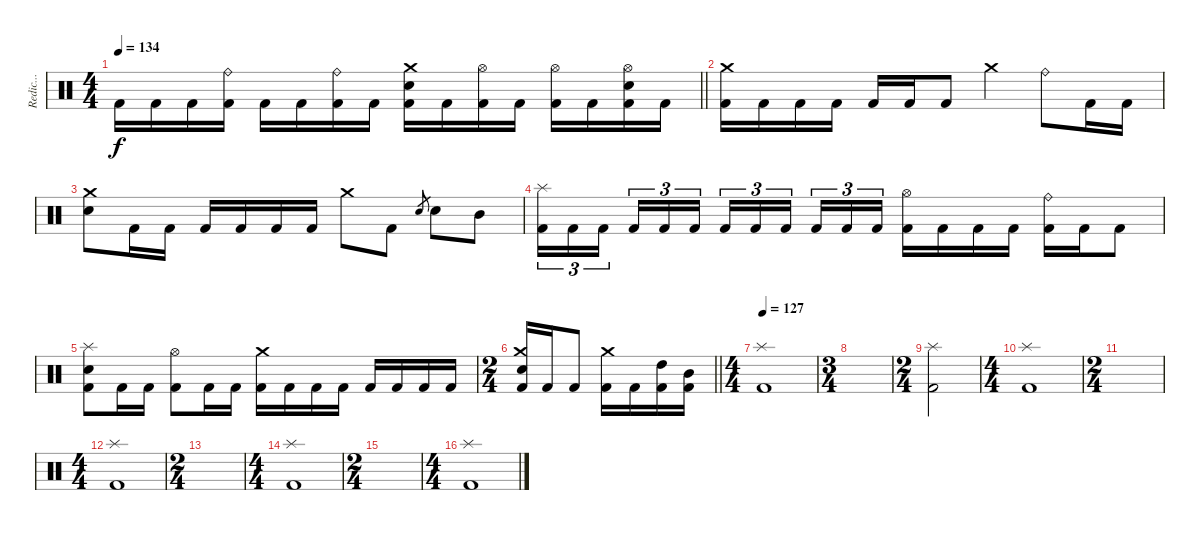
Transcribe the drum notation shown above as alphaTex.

\track ("Redic..." "Redic...") {instrument percussion}
\staff {score}
\articulation defaults
\ts (4 4)
\tempo 134
\clef neutral
\barLineRight lightlight
\ks c "Kick (hit) 2".16{dy f} "Kick (hit) 2".16 "Kick (hit) 2".16
("Ride (bell)" "Kick (hit) 2").16 "Kick (hit) 2".16 "Kick (hit) 2".16 ("Ride (bell)" "Kick (hit) 2").16 "Kick (hit) 2".16 ("Crash medium (hit)" "Electric Snare (hit)" "Kick (hit) 2").16 "Kick (hit) 2".16 ("Hi-Hat (open)" "Kick (hit) 2").16 "Kick (hit) 2".16 ("Hi-Hat (open)" "Kick (hit) 2").16 "Kick (hit) 2".16 ("Hi-Hat (open)" "Electric Snare (hit)" "Kick (hit) 2").16 "Kick (hit) 2".16 |
\section ("" "")
("Crash medium (hit)" "Kick (hit) 2").16 "Kick (hit) 2".16 "Kick (hit) 2".16 "Kick (hit) 2".16 "Kick (hit) 2".16 "Kick (hit) 2".16 "Kick (hit) 2".8 "Crash medium (hit)".4 "Ride (bell)".8 "Kick (hit) 2".16 "Kick (hit) 2".16 |
("Crash medium (hit)" "Electric Snare (hit)").8 "Kick (hit) 2".16 "Kick (hit) 2".16 "Kick (hit) 2".16 "Kick (hit) 2".16 "Kick (hit) 2".16 "Kick (hit) 2".16 "Crash medium (hit)".8 "Kick (hit) 2".8 "Electric Snare (hit)".8{gr} "Electric Snare (hit)".8 "Mid Tom (hit)".8 |
("Splash (hit)" "Kick (hit) 2").16{tu (3 2)} "Kick (hit) 2".16{tu (3 2)} "Kick (hit) 2".16{tu (3 2) beam splitsecondary} "Kick (hit) 2".16{tu (3 2)} "Kick (hit) 2".16{tu (3 2)} "Kick (hit) 2".16{tu (3 2)} "Kick (hit) 2".16{tu (3 2)} "Kick (hit) 2".16{tu (3 2)} "Kick (hit) 2".16{tu (3 2) beam splitsecondary} "Kick (hit) 2".16{tu (3 2)} "Kick (hit) 2".16{tu (3 2)} "Kick (hit) 2".16{tu (3 2)} ("Hi-Hat (open)" "Kick (hit) 2").16 "Kick (hit) 2".16 "Kick (hit) 2".16 "Kick (hit) 2".16 ("Ride (bell)" "Kick (hit) 2").16 "Kick (hit) 2".16 "Kick (hit) 2".8 |
("Splash (hit)" "Electric Snare (hit)" "Kick (hit) 2").8 "Kick (hit) 2".16 "Kick (hit) 2".16 ("Hi-Hat (open)" "Kick (hit) 2").8 "Kick (hit) 2".16 "Kick (hit) 2".16 ("Crash medium (hit)" "Kick (hit) 2").16 "Kick (hit) 2".16 "Kick (hit) 2".16 "Kick (hit) 2".16 "Kick (hit) 2".16 "Kick (hit) 2".16 "Kick (hit) 2".16 "Kick (hit) 2".16 |
\ts (2 4)
\barLineRight lightlight
("Crash medium (hit)" "Electric Snare (hit)" "Kick (hit) 2").16 "Kick (hit) 2".16 "Kick (hit) 2".8 ("Crash medium (hit)" "Kick (hit) 2").16 "Kick (hit) 2".16 ("High Tom (hit)" "Kick (hit) 2").16 ("Mid Tom (hit)" "Kick (hit) 2").16 |
\ts (4 4)
\section ("" "")
\tempo 127
("Splash (hit)" "Kick (hit) 2").1 |
\ts (3 4)
|
\ts (2 4)
("Splash (hit)" "Kick (hit) 2").2 |
\ts (4 4)
("Splash (hit)" "Kick (hit) 2").1 |
\ts (2 4)
|
\ts (4 4)
("Splash (hit)" "Kick (hit) 2").1 |
\ts (2 4)
|
\ts (4 4)
("Splash (hit)" "Kick (hit) 2").1 |
\ts (2 4)
|
\ts (4 4)
("Splash (hit)" "Kick (hit) 2").1
